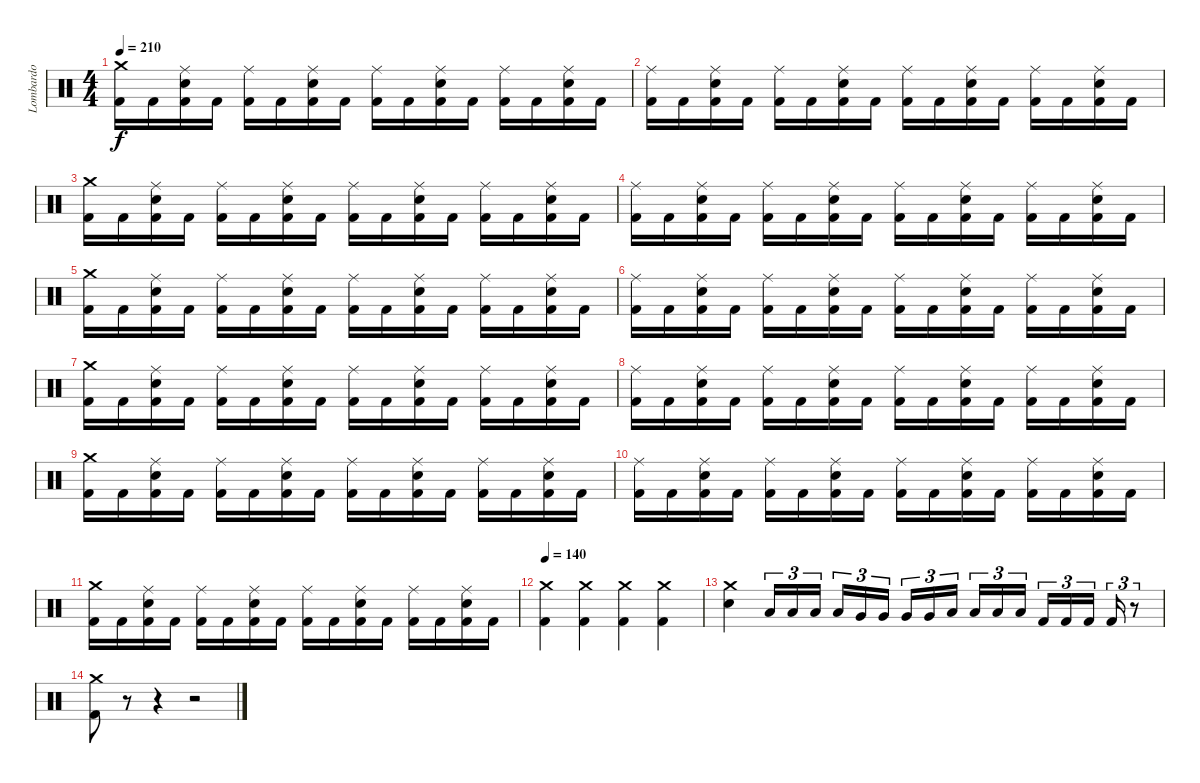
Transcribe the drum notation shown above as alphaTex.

\track ("Lombardo" "Lombardo") {instrument percussion}
\staff {score}
\articulation defaults
\ts (4 4)
\tempo 210
\clef neutral
\ks c
("Crash medium (hit)" "Kick (hit) 2").16{dy f} "Kick (hit) 2".16 ("Ride (middle)" "Snare (hit) 2" "Kick (hit) 2").16 "Kick (hit) 2".16 ("Ride (middle)" "Kick (hit) 2").16 "Kick (hit) 2".16 ("Ride (middle)" "Snare (hit) 2" "Kick (hit) 2").16 "Kick (hit) 2".16 ("Ride (middle)" "Kick (hit) 2").16 "Kick (hit) 2".16 ("Ride (middle)" "Snare (hit) 2" "Kick (hit) 2").16 "Kick (hit) 2".16 ("Ride (middle)" "Kick (hit) 2").16 "Kick (hit) 2".16 ("Ride (middle)" "Snare (hit) 2" "Kick (hit) 2").16 "Kick (hit) 2".16 |
("Ride (middle)" "Kick (hit) 2").16 "Kick (hit) 2".16 ("Ride (middle)" "Snare (hit) 2" "Kick (hit) 2").16 "Kick (hit) 2".16 ("Ride (middle)" "Kick (hit) 2").16 "Kick (hit) 2".16 ("Ride (middle)" "Snare (hit) 2" "Kick (hit) 2").16 "Kick (hit) 2".16 ("Ride (middle)" "Kick (hit) 2").16 "Kick (hit) 2".16 ("Ride (middle)" "Snare (hit) 2" "Kick (hit) 2").16 "Kick (hit) 2".16 ("Ride (middle)" "Kick (hit) 2").16 "Kick (hit) 2".16 ("Ride (middle)" "Snare (hit) 2" "Kick (hit) 2").16 "Kick (hit) 2".16 |
("Crash medium (hit)" "Kick (hit) 2").16 "Kick (hit) 2".16 ("Ride (middle)" "Snare (hit) 2" "Kick (hit) 2").16 "Kick (hit) 2".16 ("Ride (middle)" "Kick (hit) 2").16 "Kick (hit) 2".16 ("Ride (middle)" "Snare (hit) 2" "Kick (hit) 2").16 "Kick (hit) 2".16 ("Ride (middle)" "Kick (hit) 2").16 "Kick (hit) 2".16 ("Ride (middle)" "Snare (hit) 2" "Kick (hit) 2").16 "Kick (hit) 2".16 ("Ride (middle)" "Kick (hit) 2").16 "Kick (hit) 2".16 ("Ride (middle)" "Snare (hit) 2" "Kick (hit) 2").16 "Kick (hit) 2".16 |
("Ride (middle)" "Kick (hit) 2").16 "Kick (hit) 2".16 ("Ride (middle)" "Snare (hit) 2" "Kick (hit) 2").16 "Kick (hit) 2".16 ("Ride (middle)" "Kick (hit) 2").16 "Kick (hit) 2".16 ("Ride (middle)" "Snare (hit) 2" "Kick (hit) 2").16 "Kick (hit) 2".16 ("Ride (middle)" "Kick (hit) 2").16 "Kick (hit) 2".16 ("Ride (middle)" "Snare (hit) 2" "Kick (hit) 2").16 "Kick (hit) 2".16 ("Ride (middle)" "Kick (hit) 2").16 "Kick (hit) 2".16 ("Ride (middle)" "Snare (hit) 2" "Kick (hit) 2").16 "Kick (hit) 2".16 |
("Crash medium (hit)" "Kick (hit) 2").16 "Kick (hit) 2".16 ("Ride (middle)" "Snare (hit) 2" "Kick (hit) 2").16 "Kick (hit) 2".16 ("Ride (middle)" "Kick (hit) 2").16 "Kick (hit) 2".16 ("Ride (middle)" "Snare (hit) 2" "Kick (hit) 2").16 "Kick (hit) 2".16 ("Ride (middle)" "Kick (hit) 2").16 "Kick (hit) 2".16 ("Ride (middle)" "Snare (hit) 2" "Kick (hit) 2").16 "Kick (hit) 2".16 ("Ride (middle)" "Kick (hit) 2").16 "Kick (hit) 2".16 ("Ride (middle)" "Snare (hit) 2" "Kick (hit) 2").16 "Kick (hit) 2".16 |
("Ride (middle)" "Kick (hit) 2").16 "Kick (hit) 2".16 ("Ride (middle)" "Snare (hit) 2" "Kick (hit) 2").16 "Kick (hit) 2".16 ("Ride (middle)" "Kick (hit) 2").16 "Kick (hit) 2".16 ("Ride (middle)" "Snare (hit) 2" "Kick (hit) 2").16 "Kick (hit) 2".16 ("Ride (middle)" "Kick (hit) 2").16 "Kick (hit) 2".16 ("Ride (middle)" "Snare (hit) 2" "Kick (hit) 2").16 "Kick (hit) 2".16 ("Ride (middle)" "Kick (hit) 2").16 "Kick (hit) 2".16 ("Ride (middle)" "Snare (hit) 2" "Kick (hit) 2").16 "Kick (hit) 2".16 |
("Crash medium (hit)" "Kick (hit) 2").16 "Kick (hit) 2".16 ("Ride (middle)" "Snare (hit) 2" "Kick (hit) 2").16 "Kick (hit) 2".16 ("Ride (middle)" "Kick (hit) 2").16 "Kick (hit) 2".16 ("Ride (middle)" "Snare (hit) 2" "Kick (hit) 2").16 "Kick (hit) 2".16 ("Ride (middle)" "Kick (hit) 2").16 "Kick (hit) 2".16 ("Ride (middle)" "Snare (hit) 2" "Kick (hit) 2").16 "Kick (hit) 2".16 ("Ride (middle)" "Kick (hit) 2").16 "Kick (hit) 2".16 ("Ride (middle)" "Snare (hit) 2" "Kick (hit) 2").16 "Kick (hit) 2".16 |
("Ride (middle)" "Kick (hit) 2").16 "Kick (hit) 2".16 ("Ride (middle)" "Snare (hit) 2" "Kick (hit) 2").16 "Kick (hit) 2".16 ("Ride (middle)" "Kick (hit) 2").16 "Kick (hit) 2".16 ("Ride (middle)" "Snare (hit) 2" "Kick (hit) 2").16 "Kick (hit) 2".16 ("Ride (middle)" "Kick (hit) 2").16 "Kick (hit) 2".16 ("Ride (middle)" "Snare (hit) 2" "Kick (hit) 2").16 "Kick (hit) 2".16 ("Ride (middle)" "Kick (hit) 2").16 "Kick (hit) 2".16 ("Ride (middle)" "Snare (hit) 2" "Kick (hit) 2").16 "Kick (hit) 2".16 |
("Crash medium (hit)" "Kick (hit) 2").16 "Kick (hit) 2".16 ("Ride (middle)" "Snare (hit) 2" "Kick (hit) 2").16 "Kick (hit) 2".16 ("Ride (middle)" "Kick (hit) 2").16 "Kick (hit) 2".16 ("Ride (middle)" "Snare (hit) 2" "Kick (hit) 2").16 "Kick (hit) 2".16 ("Ride (middle)" "Kick (hit) 2").16 "Kick (hit) 2".16 ("Ride (middle)" "Snare (hit) 2" "Kick (hit) 2").16 "Kick (hit) 2".16 ("Ride (middle)" "Kick (hit) 2").16 "Kick (hit) 2".16 ("Ride (middle)" "Snare (hit) 2" "Kick (hit) 2").16 "Kick (hit) 2".16 |
("Ride (middle)" "Kick (hit) 2").16 "Kick (hit) 2".16 ("Ride (middle)" "Snare (hit) 2" "Kick (hit) 2").16 "Kick (hit) 2".16 ("Ride (middle)" "Kick (hit) 2").16 "Kick (hit) 2".16 ("Ride (middle)" "Snare (hit) 2" "Kick (hit) 2").16 "Kick (hit) 2".16 ("Ride (middle)" "Kick (hit) 2").16 "Kick (hit) 2".16 ("Ride (middle)" "Snare (hit) 2" "Kick (hit) 2").16 "Kick (hit) 2".16 ("Ride (middle)" "Kick (hit) 2").16 "Kick (hit) 2".16 ("Ride (middle)" "Snare (hit) 2" "Kick (hit) 2").16 "Kick (hit) 2".16 |
("Crash medium (hit)" "Kick (hit) 2").16 "Kick (hit) 2".16 ("Ride (middle)" "Snare (hit) 2" "Kick (hit) 2").16 "Kick (hit) 2".16 ("Ride (middle)" "Kick (hit) 2").16 "Kick (hit) 2".16 ("Ride (middle)" "Snare (hit) 2" "Kick (hit) 2").16 "Kick (hit) 2".16 ("Ride (middle)" "Kick (hit) 2").16 "Kick (hit) 2".16 ("Ride (middle)" "Snare (hit) 2" "Kick (hit) 2").16 "Kick (hit) 2".16 ("Ride (middle)" "Kick (hit) 2").16 "Kick (hit) 2".16 ("Ride (middle)" "Snare (hit) 2" "Kick (hit) 2").16 "Kick (hit) 2".16 |
\tempo 140
("Crash medium (hit)" "Kick (hit) 2").4 ("Crash medium (hit)" "Kick (hit) 2").4 ("Crash medium (hit)" "Kick (hit) 2").4 ("Crash medium (hit)" "Kick (hit) 2").4 |
("Crash medium (hit)" "Snare (hit) 2").4 "Low Tom (hit)".16{tu (3 2)} "Low Tom (hit)".16{tu (3 2)} "Low Tom (hit)".16{tu (3 2) beam splitsecondary} "Low Tom (hit)".16{tu (3 2)} "Very Low Tom (hit)".16{tu (3 2)} "Very Low Tom (hit)".16{tu (3 2)} "Very Low Tom (hit)".16{tu (3 2)} "Very Low Tom (hit)".16{tu (3 2)} "Low Floor Tom (hit)".16{tu (3 2) beam splitsecondary} "Low Floor Tom (hit)".16{tu (3 2)} "Low Floor Tom (hit)".16{tu (3 2)} "Low Floor Tom (hit)".16{tu (3 2)} "Kick (hit) 2".16{tu (3 2)} "Kick (hit) 2".16{tu (3 2)} "Kick (hit) 2".16{tu (3 2) beam splitsecondary} "Kick (hit) 2".16{tu (3 2)} r.8{tu (3 2)} |
("Crash medium (hit)" "Kick (hit) 2").8 r.8 r.4 r.2
